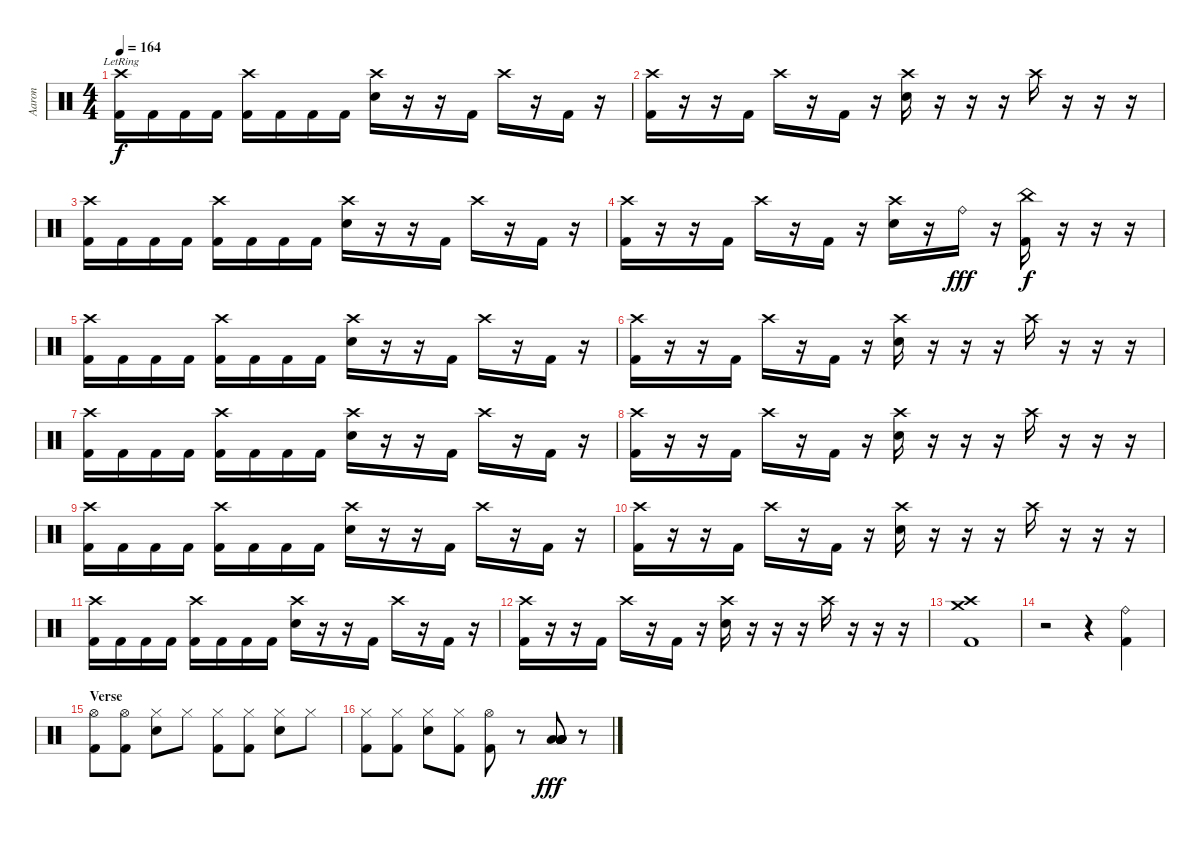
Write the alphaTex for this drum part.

\track ("Aaron" "Aaron") {instrument percussion}
\staff {score}
\articulation defaults
\ts (4 4)
\tempo 164
\clef neutral
\ks c
("Crash high (hit)"{lr} "Kick (hit) 2").16{dy f} "Kick (hit) 2".16 "Kick (hit) 2".16 "Kick (hit) 2".16 ("Crash high (hit)" "Kick (hit) 2").16 "Kick (hit) 2".16 "Kick (hit) 2".16 "Kick (hit) 2".16 ("Crash high (hit)" "Snare (hit) 2").16 r.16 r.16 "Kick (hit) 2".16 "Crash high (hit)".16 r.16 "Kick (hit) 2".16 r.16 |
("Crash high (hit)" "Kick (hit) 2").16 r.16 r.16 "Kick (hit) 2".16 "Crash high (hit)".16 r.16 "Kick (hit) 2".16 r.16 ("Crash high (hit)" "Snare (hit) 2").16 r.16 r.16 r.16 "Crash high (hit)".16 r.16 r.16 r.16 |
("Crash high (hit)" "Kick (hit) 2").16 "Kick (hit) 2".16 "Kick (hit) 2".16 "Kick (hit) 2".16 ("Crash high (hit)" "Kick (hit) 2").16 "Kick (hit) 2".16 "Kick (hit) 2".16 "Kick (hit) 2".16 ("Crash high (hit)" "Snare (hit) 2").16 r.16 r.16 "Kick (hit) 2".16 "Crash high (hit)".16 r.16 "Kick (hit) 2".16 r.16 |
("Crash high (hit)" "Kick (hit) 2").16 r.16 r.16 "Kick (hit) 2".16 "Crash high (hit)".16 r.16 "Kick (hit) 2".16 r.16 ("Crash high (hit)" "Snare (hit) 2").16 r.16 "Ride (bell)".16{dy fff} r.16 ("China (hit)" "Kick (hit) 2").16{dy f} r.16 r.16 r.16 |
("Crash high (hit)" "Kick (hit) 2").16 "Kick (hit) 2".16 "Kick (hit) 2".16 "Kick (hit) 2".16 ("Crash high (hit)" "Kick (hit) 2").16 "Kick (hit) 2".16 "Kick (hit) 2".16 "Kick (hit) 2".16 ("Crash high (hit)" "Snare (hit) 2").16 r.16 r.16 "Kick (hit) 2".16 "Crash high (hit)".16 r.16 "Kick (hit) 2".16 r.16 |
("Crash high (hit)" "Kick (hit) 2").16 r.16 r.16 "Kick (hit) 2".16 "Crash high (hit)".16 r.16 "Kick (hit) 2".16 r.16 ("Crash high (hit)" "Snare (hit) 2").16 r.16 r.16 r.16 "Crash high (hit)".16 r.16 r.16 r.16 |
("Crash high (hit)" "Kick (hit) 2").16 "Kick (hit) 2".16 "Kick (hit) 2".16 "Kick (hit) 2".16 ("Crash high (hit)" "Kick (hit) 2").16 "Kick (hit) 2".16 "Kick (hit) 2".16 "Kick (hit) 2".16 ("Crash high (hit)" "Snare (hit) 2").16 r.16 r.16 "Kick (hit) 2".16 "Crash high (hit)".16 r.16 "Kick (hit) 2".16 r.16 |
("Crash high (hit)" "Kick (hit) 2").16 r.16 r.16 "Kick (hit) 2".16 "Crash high (hit)".16 r.16 "Kick (hit) 2".16 r.16 ("Crash high (hit)" "Snare (hit) 2").16 r.16 r.16 r.16 "Crash high (hit)".16 r.16 r.16 r.16 |
("Crash high (hit)" "Kick (hit) 2").16 "Kick (hit) 2".16 "Kick (hit) 2".16 "Kick (hit) 2".16 ("Crash high (hit)" "Kick (hit) 2").16 "Kick (hit) 2".16 "Kick (hit) 2".16 "Kick (hit) 2".16 ("Crash high (hit)" "Snare (hit) 2").16 r.16 r.16 "Kick (hit) 2".16 "Crash high (hit)".16 r.16 "Kick (hit) 2".16 r.16 |
("Crash high (hit)" "Kick (hit) 2").16 r.16 r.16 "Kick (hit) 2".16 "Crash high (hit)".16 r.16 "Kick (hit) 2".16 r.16 ("Crash high (hit)" "Snare (hit) 2").16 r.16 r.16 r.16 "Crash high (hit)".16 r.16 r.16 r.16 |
("Crash high (hit)" "Kick (hit) 2").16 "Kick (hit) 2".16 "Kick (hit) 2".16 "Kick (hit) 2".16 ("Crash high (hit)" "Kick (hit) 2").16 "Kick (hit) 2".16 "Kick (hit) 2".16 "Kick (hit) 2".16 ("Crash high (hit)" "Snare (hit) 2").16 r.16 r.16 "Kick (hit) 2".16 "Crash high (hit)".16 r.16 "Kick (hit) 2".16 r.16 |
("Crash high (hit)" "Kick (hit) 2").16 r.16 r.16 "Kick (hit) 2".16 "Crash high (hit)".16 r.16 "Kick (hit) 2".16 r.16 ("Crash high (hit)" "Snare (hit) 2").16 r.16 r.16 r.16 "Crash high (hit)".16 r.16 r.16 r.16 |
("Crash high (hit)" "Crash medium (hit)" "Kick (hit) 2").1 |
r.2 r.4 ("Ride (bell)" "Kick (hit) 2").4 |
\section ("" "Verse")
("Hi-Hat (open)" "Kick (hit) 2").8 ("Hi-Hat (open)" "Kick (hit) 2").8 ("Hi-Hat (closed)" "Snare (hit) 2").8 "Hi-Hat (closed)".8 ("Hi-Hat (closed)" "Kick (hit) 2").8 ("Hi-Hat (closed)" "Kick (hit) 2").8 ("Hi-Hat (closed)" "Snare (hit) 2").8 "Hi-Hat (closed)".8 |
("Hi-Hat (closed)" "Kick (hit) 2").8 ("Hi-Hat (closed)" "Kick (hit) 2").8 ("Hi-Hat (closed)" "Snare (hit) 2").8 ("Hi-Hat (closed)" "Kick (hit) 2").8 ("Hi-Hat (open)" "Kick (hit) 2").8 r.8 ("Low Floor Tom (hit)" "Low Floor Tom (hit)" "Low Floor Tom (hit)" "Low Floor Tom (hit)" "Low Floor Tom (hit)").8{dy fff} r.8
